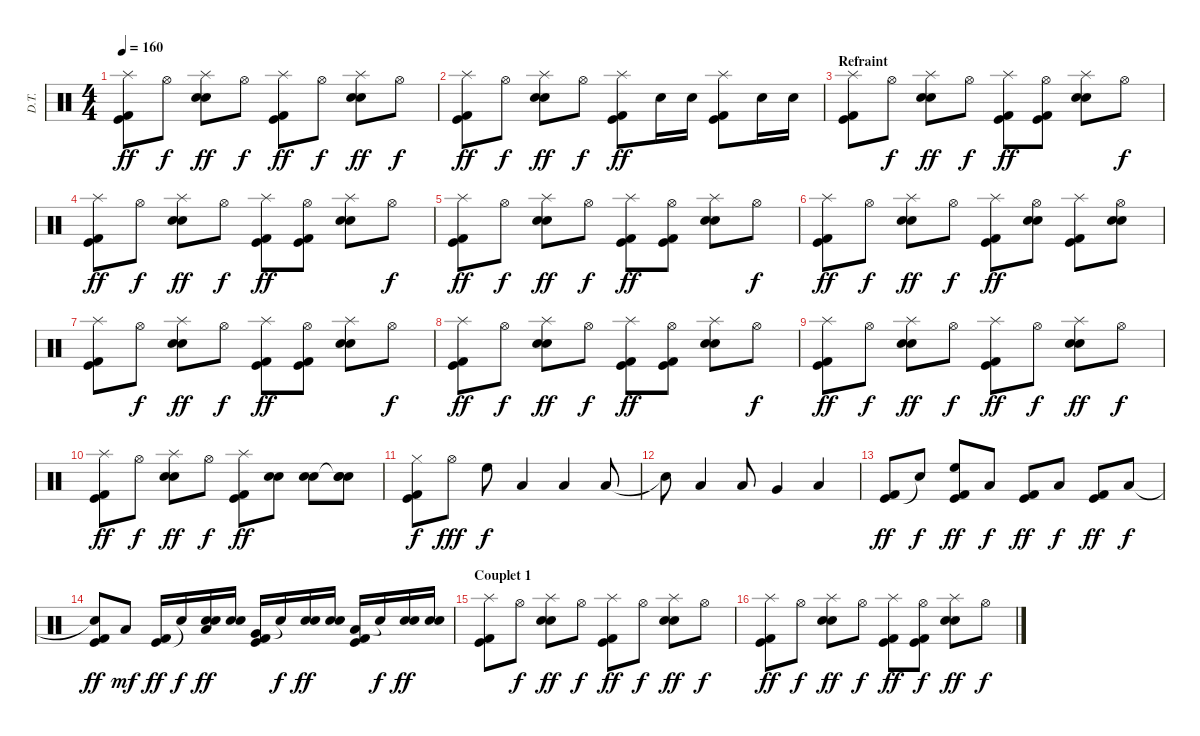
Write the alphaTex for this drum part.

\track ("D.T." "D.T.") {instrument percussion}
\staff {score}
\articulation defaults
\ts (4 4)
\tempo 160
\clef neutral
\ks c
("Splash (hit)" "Kick (hit)" "Kick (hit) 2").8{dy ff} "Hi-Hat (open)".8{dy f} ("Splash (hit)" "Snare (hit) 2" "Electric Snare (hit)").8{dy ff} "Hi-Hat (open)".8{dy f} ("Splash (hit)" "Kick (hit)" "Kick (hit) 2").8{dy ff} "Hi-Hat (open)".8{dy f} ("Splash (hit)" "Snare (hit) 2" "Electric Snare (hit)").8{dy ff} "Hi-Hat (open)".8{dy f} |
("Splash (hit)" "Kick (hit)" "Kick (hit) 2").8{dy ff} "Hi-Hat (open)".8{dy f} ("Splash (hit)" "Snare (hit) 2" "Electric Snare (hit)").8{dy ff} "Hi-Hat (open)".8{dy f} ("Splash (hit)" "Kick (hit)" "Kick (hit) 2").8{dy ff} "Electric Snare (hit)".16 "Electric Snare (hit)".16 ("Splash (hit)" "Kick (hit)" "Kick (hit) 2").8 "Electric Snare (hit)".16 "Electric Snare (hit)".16 |
\section ("" "Refraint")
("Splash (hit)" "Kick (hit)" "Kick (hit) 2").8 "Hi-Hat (open)".8{dy f} ("Splash (hit)" "Snare (hit) 2" "Electric Snare (hit)").8{dy ff} "Hi-Hat (open)".8{dy f} ("Splash (hit)" "Kick (hit)" "Kick (hit) 2").8{dy ff} ("Hi-Hat (open)" "Kick (hit)" "Kick (hit) 2").8 ("Splash (hit)" "Snare (hit) 2" "Electric Snare (hit)").8 "Hi-Hat (open)".8{dy f} |
("Splash (hit)" "Kick (hit)" "Kick (hit) 2").8{dy ff} "Hi-Hat (open)".8{dy f} ("Splash (hit)" "Snare (hit) 2" "Electric Snare (hit)").8{dy ff} "Hi-Hat (open)".8{dy f} ("Splash (hit)" "Kick (hit)" "Kick (hit) 2").8{dy ff} ("Hi-Hat (open)" "Kick (hit)" "Kick (hit) 2").8 ("Splash (hit)" "Snare (hit) 2" "Electric Snare (hit)").8 "Hi-Hat (open)".8{dy f} |
("Splash (hit)" "Kick (hit)" "Kick (hit) 2").8{dy ff} "Hi-Hat (open)".8{dy f} ("Splash (hit)" "Snare (hit) 2" "Electric Snare (hit)").8{dy ff} "Hi-Hat (open)".8{dy f} ("Splash (hit)" "Kick (hit)" "Kick (hit) 2").8{dy ff} ("Hi-Hat (open)" "Kick (hit)" "Kick (hit) 2").8 ("Splash (hit)" "Snare (hit) 2" "Electric Snare (hit)").8 "Hi-Hat (open)".8{dy f} |
("Splash (hit)" "Kick (hit)" "Kick (hit) 2").8{dy ff} "Hi-Hat (open)".8{dy f} ("Splash (hit)" "Snare (hit) 2" "Electric Snare (hit)").8{dy ff} "Hi-Hat (open)".8{dy f} ("Splash (hit)" "Kick (hit)" "Kick (hit) 2").8{dy ff} ("Hi-Hat (open)" "Snare (hit) 2" "Electric Snare (hit)").8 ("Splash (hit)" "Kick (hit)" "Kick (hit) 2").8 ("Hi-Hat (open)" "Snare (hit) 2" "Electric Snare (hit)").8 |
("Splash (hit)" "Kick (hit)" "Kick (hit) 2").8 "Hi-Hat (open)".8{dy f} ("Splash (hit)" "Snare (hit) 2" "Electric Snare (hit)").8{dy ff} "Hi-Hat (open)".8{dy f} ("Splash (hit)" "Kick (hit)" "Kick (hit) 2").8{dy ff} ("Hi-Hat (open)" "Kick (hit)" "Kick (hit) 2").8 ("Splash (hit)" "Snare (hit) 2" "Electric Snare (hit)").8 "Hi-Hat (open)".8{dy f} |
("Splash (hit)" "Kick (hit)" "Kick (hit) 2").8{dy ff} "Hi-Hat (open)".8{dy f} ("Splash (hit)" "Snare (hit) 2" "Electric Snare (hit)").8{dy ff} "Hi-Hat (open)".8{dy f} ("Splash (hit)" "Kick (hit)" "Kick (hit) 2").8{dy ff} ("Hi-Hat (open)" "Kick (hit)" "Kick (hit) 2").8 ("Splash (hit)" "Snare (hit) 2" "Electric Snare (hit)").8 "Hi-Hat (open)".8{dy f} |
("Splash (hit)" "Kick (hit)" "Kick (hit) 2").8{dy ff} "Hi-Hat (open)".8{dy f} ("Splash (hit)" "Snare (hit) 2" "Electric Snare (hit)").8{dy ff} "Hi-Hat (open)".8{dy f} ("Splash (hit)" "Kick (hit)" "Kick (hit) 2").8{dy ff} "Hi-Hat (open)".8{dy f} ("Splash (hit)" "Snare (hit) 2" "Electric Snare (hit)").8{dy ff} "Hi-Hat (open)".8{dy f} |
("Splash (hit)" "Kick (hit)" "Kick (hit) 2").8{dy ff} "Hi-Hat (open)".8{dy f} ("Splash (hit)" "Snare (hit) 2" "Electric Snare (hit)").8{dy ff} "Hi-Hat (open)".8{dy f} ("Splash (hit)" "Kick (hit)" "Kick (hit) 2").8{dy ff} ("Snare (hit) 2" "Electric Snare (hit)").8 ("Snare (hit) 2" "Electric Snare (hit)").8 ("Snare (hit)"{t} "Snare (hit) 2" "Electric Snare (hit)").8 |
("Hi-Hat (closed)" "Kick (hit)" "Kick (hit) 2").8{dy f} "Hi-Hat (open)".8{dy fff} "High Floor Tom (hit)".8{dy f} "Low Tom (hit)".4 "Low Tom (hit)".4 "Low Tom (hit)".8 |
"Snare (hit)"{t}.8 "Low Tom (hit)".4 "Low Tom (hit)".8 "Very Low Tom (hit)".4 "Low Floor Tom (hit)".4 |
("Kick (hit)" "Kick (hit) 2").8{dy ff} "Snare (hit)"{t}.8{dy f} ("High Floor Tom (hit)" "Kick (hit)" "Kick (hit) 2").8{dy ff} "Low Tom (hit)".8{dy f} ("Kick (hit)" "Kick (hit) 2").8{dy ff} "Low Tom (hit)".8{dy f} ("Kick (hit)" "Kick (hit) 2").8{dy ff} "Low Tom (hit)".8{dy f} |
("Snare (hit)"{t} "Kick (hit)" "Kick (hit) 2").8{dy ff} "Low Tom (hit)".8{dy mf} ("Kick (hit)" "Kick (hit) 2").16{dy ff} "Snare (hit)"{t}.16{dy f} ("Low Tom (hit)" "Snare (hit) 2" "Electric Snare (hit)").16{dy ff} ("Snare (hit) 2" "Electric Snare (hit)").16 ("Very Low Tom (hit)" "Kick (hit)" "Kick (hit) 2").16 "Snare (hit)"{t}.16{dy f} ("Snare (hit) 2" "Electric Snare (hit)").16{dy ff} ("Snare (hit) 2" "Electric Snare (hit)").16 ("Low Floor Tom (hit)" "Kick (hit)" "Kick (hit) 2").16 "Snare (hit)"{t}.16{dy f} ("Snare (hit) 2" "Electric Snare (hit)").16{dy ff} ("Snare (hit) 2" "Electric Snare (hit)").16 |
\section ("" "Couplet 1")
("Splash (hit)" "Kick (hit)" "Kick (hit) 2").8 "Hi-Hat (open)".8{dy f} ("Splash (hit)" "Snare (hit) 2" "Electric Snare (hit)").8{dy ff} "Hi-Hat (open)".8{dy f} ("Splash (hit)" "Kick (hit)" "Kick (hit) 2").8{dy ff} "Hi-Hat (open)".8{dy f} ("Splash (hit)" "Snare (hit) 2" "Electric Snare (hit)").8{dy ff} "Hi-Hat (open)".8{dy f} |
("Splash (hit)" "Kick (hit)" "Kick (hit) 2").8{dy ff} "Hi-Hat (open)".8{dy f} ("Splash (hit)" "Snare (hit) 2" "Electric Snare (hit)").8{dy ff} "Hi-Hat (open)".8{dy f} ("Splash (hit)" "Kick (hit)" "Kick (hit) 2").8{dy ff} ("Hi-Hat (open)" "Kick (hit)" "Kick (hit) 2").8{dy f} ("Splash (hit)" "Snare (hit) 2" "Electric Snare (hit)").8{dy ff} "Hi-Hat (open)".8{dy f}
